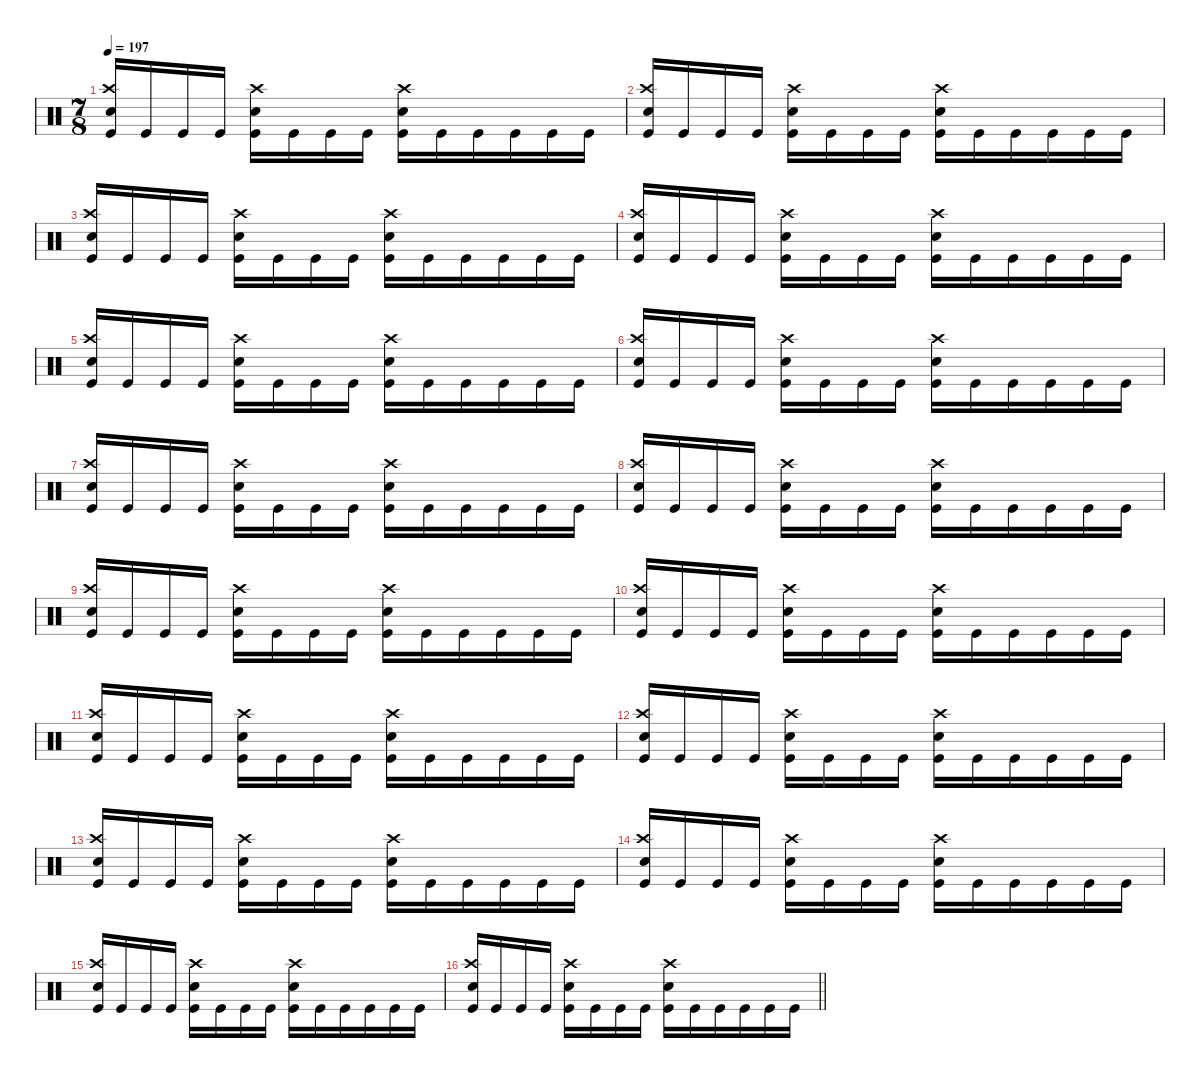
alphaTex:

\defaultSystemsLayout 4
\hideDynamics
\bracketExtendMode nobrackets
\singleTrackTrackNamePolicy hidden
\multiTrackTrackNamePolicy hidden
\firstSystemTrackNameMode fullname
\firstSystemTrackNameOrientation horizontal
\otherSystemsTrackNameOrientation horizontal
\track ("Drums" "drm.") {defaultSystemsLayout 4 instrument percussion}
\staff {score}
\articulation defaults
\ts (7 8)
\beaming (8 2 2 3)
\tempo 197
\clef neutral
\ks c
("Crash high (hit)" "Snare (hit) 2" "Kick (hit)").16{dy f beam Up} "Kick (hit)".16{beam Up} "Kick (hit)".16{beam Up} "Kick (hit)".16{beam Up} ("Crash high (hit)" "Snare (hit) 2" "Kick (hit)").16{beam Down} "Kick (hit)".16{beam Down} "Kick (hit)".16{beam Down} "Kick (hit)".16{beam Down} ("Crash high (hit)" "Snare (hit) 2" "Kick (hit)").16{beam Down} "Kick (hit)".16{beam Down} "Kick (hit)".16{beam Down} "Kick (hit)".16{beam Down} "Kick (hit)".16{beam Down} "Kick (hit)".16{beam Down} |
("Crash high (hit)" "Snare (hit) 2" "Kick (hit)").16{beam Up} "Kick (hit)".16{beam Up} "Kick (hit)".16{beam Up} "Kick (hit)".16{beam Up} ("Crash high (hit)" "Snare (hit) 2" "Kick (hit)").16{beam Down} "Kick (hit)".16{beam Down} "Kick (hit)".16{beam Down} "Kick (hit)".16{beam Down} ("Crash high (hit)" "Snare (hit) 2" "Kick (hit)").16{beam Down} "Kick (hit)".16{beam Down} "Kick (hit)".16{beam Down} "Kick (hit)".16{beam Down} "Kick (hit)".16{beam Down} "Kick (hit)".16{beam Down} |
("Crash high (hit)" "Snare (hit) 2" "Kick (hit)").16{beam Up} "Kick (hit)".16{beam Up} "Kick (hit)".16{beam Up} "Kick (hit)".16{beam Up} ("Crash high (hit)" "Snare (hit) 2" "Kick (hit)").16{beam Down} "Kick (hit)".16{beam Down} "Kick (hit)".16{beam Down} "Kick (hit)".16{beam Down} ("Crash high (hit)" "Snare (hit) 2" "Kick (hit)").16{beam Down} "Kick (hit)".16{beam Down} "Kick (hit)".16{beam Down} "Kick (hit)".16{beam Down} "Kick (hit)".16{beam Down} "Kick (hit)".16{beam Down} |
("Crash high (hit)" "Snare (hit) 2" "Kick (hit)").16{beam Up} "Kick (hit)".16{beam Up} "Kick (hit)".16{beam Up} "Kick (hit)".16{beam Up} ("Crash high (hit)" "Snare (hit) 2" "Kick (hit)").16{beam Down} "Kick (hit)".16{beam Down} "Kick (hit)".16{beam Down} "Kick (hit)".16{beam Down} ("Crash high (hit)" "Snare (hit) 2" "Kick (hit)").16{beam Down} "Kick (hit)".16{beam Down} "Kick (hit)".16{beam Down} "Kick (hit)".16{beam Down} "Kick (hit)".16{beam Down} "Kick (hit)".16{beam Down} |
("Crash high (hit)" "Snare (hit) 2" "Kick (hit)").16{beam Up} "Kick (hit)".16{beam Up} "Kick (hit)".16{beam Up} "Kick (hit)".16{beam Up} ("Crash high (hit)" "Snare (hit) 2" "Kick (hit)").16{beam Down} "Kick (hit)".16{beam Down} "Kick (hit)".16{beam Down} "Kick (hit)".16{beam Down} ("Crash high (hit)" "Snare (hit) 2" "Kick (hit)").16{beam Down} "Kick (hit)".16{beam Down} "Kick (hit)".16{beam Down} "Kick (hit)".16{beam Down} "Kick (hit)".16{beam Down} "Kick (hit)".16{beam Down} |
("Crash high (hit)" "Snare (hit) 2" "Kick (hit)").16{beam Up} "Kick (hit)".16{beam Up} "Kick (hit)".16{beam Up} "Kick (hit)".16{beam Up} ("Crash high (hit)" "Snare (hit) 2" "Kick (hit)").16{beam Down} "Kick (hit)".16{beam Down} "Kick (hit)".16{beam Down} "Kick (hit)".16{beam Down} ("Crash high (hit)" "Snare (hit) 2" "Kick (hit)").16{beam Down} "Kick (hit)".16{beam Down} "Kick (hit)".16{beam Down} "Kick (hit)".16{beam Down} "Kick (hit)".16{beam Down} "Kick (hit)".16{beam Down} |
("Crash high (hit)" "Snare (hit) 2" "Kick (hit)").16{beam Up} "Kick (hit)".16{beam Up} "Kick (hit)".16{beam Up} "Kick (hit)".16{beam Up} ("Crash high (hit)" "Snare (hit) 2" "Kick (hit)").16{beam Down} "Kick (hit)".16{beam Down} "Kick (hit)".16{beam Down} "Kick (hit)".16{beam Down} ("Crash high (hit)" "Snare (hit) 2" "Kick (hit)").16{beam Down} "Kick (hit)".16{beam Down} "Kick (hit)".16{beam Down} "Kick (hit)".16{beam Down} "Kick (hit)".16{beam Down} "Kick (hit)".16{beam Down} |
("Crash high (hit)" "Snare (hit) 2" "Kick (hit)").16{beam Up} "Kick (hit)".16{beam Up} "Kick (hit)".16{beam Up} "Kick (hit)".16{beam Up} ("Crash high (hit)" "Snare (hit) 2" "Kick (hit)").16{beam Down} "Kick (hit)".16{beam Down} "Kick (hit)".16{beam Down} "Kick (hit)".16{beam Down} ("Crash high (hit)" "Snare (hit) 2" "Kick (hit)").16{beam Down} "Kick (hit)".16{beam Down} "Kick (hit)".16{beam Down} "Kick (hit)".16{beam Down} "Kick (hit)".16{beam Down} "Kick (hit)".16{beam Down} |
("Crash high (hit)" "Snare (hit) 2" "Kick (hit)").16{beam Up} "Kick (hit)".16{beam Up} "Kick (hit)".16{beam Up} "Kick (hit)".16{beam Up} ("Crash high (hit)" "Snare (hit) 2" "Kick (hit)").16{beam Down} "Kick (hit)".16{beam Down} "Kick (hit)".16{beam Down} "Kick (hit)".16{beam Down} ("Crash high (hit)" "Snare (hit) 2" "Kick (hit)").16{beam Down} "Kick (hit)".16{beam Down} "Kick (hit)".16{beam Down} "Kick (hit)".16{beam Down} "Kick (hit)".16{beam Down} "Kick (hit)".16{beam Down} |
("Crash high (hit)" "Snare (hit) 2" "Kick (hit)").16{beam Up} "Kick (hit)".16{beam Up} "Kick (hit)".16{beam Up} "Kick (hit)".16{beam Up} ("Crash high (hit)" "Snare (hit) 2" "Kick (hit)").16{beam Down} "Kick (hit)".16{beam Down} "Kick (hit)".16{beam Down} "Kick (hit)".16{beam Down} ("Crash high (hit)" "Snare (hit) 2" "Kick (hit)").16{beam Down} "Kick (hit)".16{beam Down} "Kick (hit)".16{beam Down} "Kick (hit)".16{beam Down} "Kick (hit)".16{beam Down} "Kick (hit)".16{beam Down} |
("Crash high (hit)" "Snare (hit) 2" "Kick (hit)").16{beam Up} "Kick (hit)".16{beam Up} "Kick (hit)".16{beam Up} "Kick (hit)".16{beam Up} ("Crash high (hit)" "Snare (hit) 2" "Kick (hit)").16{beam Down} "Kick (hit)".16{beam Down} "Kick (hit)".16{beam Down} "Kick (hit)".16{beam Down} ("Crash high (hit)" "Snare (hit) 2" "Kick (hit)").16{beam Down} "Kick (hit)".16{beam Down} "Kick (hit)".16{beam Down} "Kick (hit)".16{beam Down} "Kick (hit)".16{beam Down} "Kick (hit)".16{beam Down} |
("Crash high (hit)" "Snare (hit) 2" "Kick (hit)").16{beam Up} "Kick (hit)".16{beam Up} "Kick (hit)".16{beam Up} "Kick (hit)".16{beam Up} ("Crash high (hit)" "Snare (hit) 2" "Kick (hit)").16{beam Down} "Kick (hit)".16{beam Down} "Kick (hit)".16{beam Down} "Kick (hit)".16{beam Down} ("Crash high (hit)" "Snare (hit) 2" "Kick (hit)").16{beam Down} "Kick (hit)".16{beam Down} "Kick (hit)".16{beam Down} "Kick (hit)".16{beam Down} "Kick (hit)".16{beam Down} "Kick (hit)".16{beam Down} |
("Crash high (hit)" "Snare (hit) 2" "Kick (hit)").16{beam Up} "Kick (hit)".16{beam Up} "Kick (hit)".16{beam Up} "Kick (hit)".16{beam Up} ("Crash high (hit)" "Snare (hit) 2" "Kick (hit)").16{beam Down} "Kick (hit)".16{beam Down} "Kick (hit)".16{beam Down} "Kick (hit)".16{beam Down} ("Crash high (hit)" "Snare (hit) 2" "Kick (hit)").16{beam Down} "Kick (hit)".16{beam Down} "Kick (hit)".16{beam Down} "Kick (hit)".16{beam Down} "Kick (hit)".16{beam Down} "Kick (hit)".16{beam Down} |
("Crash high (hit)" "Snare (hit) 2" "Kick (hit)").16{beam Up} "Kick (hit)".16{beam Up} "Kick (hit)".16{beam Up} "Kick (hit)".16{beam Up} ("Crash high (hit)" "Snare (hit) 2" "Kick (hit)").16{beam Down} "Kick (hit)".16{beam Down} "Kick (hit)".16{beam Down} "Kick (hit)".16{beam Down} ("Crash high (hit)" "Snare (hit) 2" "Kick (hit)").16{beam Down} "Kick (hit)".16{beam Down} "Kick (hit)".16{beam Down} "Kick (hit)".16{beam Down} "Kick (hit)".16{beam Down} "Kick (hit)".16{beam Down} |
("Crash high (hit)" "Snare (hit) 2" "Kick (hit)").16{beam Up} "Kick (hit)".16{beam Up} "Kick (hit)".16{beam Up} "Kick (hit)".16{beam Up} ("Crash high (hit)" "Snare (hit) 2" "Kick (hit)").16{beam Down} "Kick (hit)".16{beam Down} "Kick (hit)".16{beam Down} "Kick (hit)".16{beam Down} ("Crash high (hit)" "Snare (hit) 2" "Kick (hit)").16{beam Down} "Kick (hit)".16{beam Down} "Kick (hit)".16{beam Down} "Kick (hit)".16{beam Down} "Kick (hit)".16{beam Down} "Kick (hit)".16{beam Down} |
\barLineRight lightlight
("Crash high (hit)" "Snare (hit) 2" "Kick (hit)").16{beam Up} "Kick (hit)".16{beam Up} "Kick (hit)".16{beam Up} "Kick (hit)".16{beam Up} ("Crash high (hit)" "Snare (hit) 2" "Kick (hit)").16{beam Down} "Kick (hit)".16{beam Down} "Kick (hit)".16{beam Down} "Kick (hit)".16{beam Down} ("Crash high (hit)" "Snare (hit) 2" "Kick (hit)").16{beam Down} "Kick (hit)".16{beam Down} "Kick (hit)".16{beam Down} "Kick (hit)".16{beam Down} "Kick (hit)".16{beam Down} "Kick (hit)".16{beam Down}
